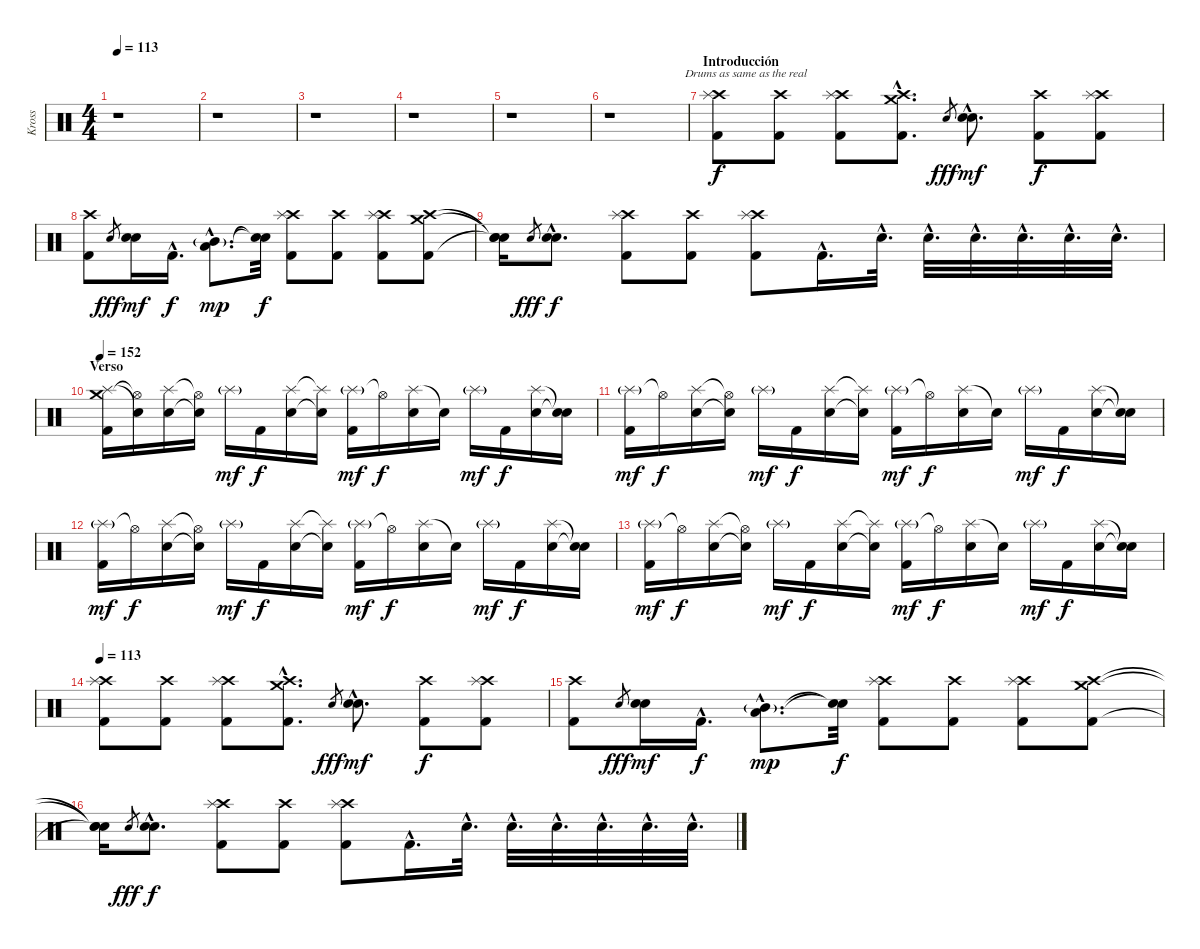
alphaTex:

\track ("Kross" "Kross") {instrument percussion}
\staff {score}
\articulation defaults
\ts (4 4)
\tempo 113
\clef neutral
\ks c
r.1{dy f} |
r.1 |
r.1 |
r.1 |
r.1 |
r.1{txt "                         Drums as same as the real"} |
\section ("" "Introducción")
("Crash high (hit)" "Splash (hit)" "Kick (hit) 2").8 ("Crash high (hit)" "Kick (hit) 2").8 ("Crash high (hit)" "Splash (hit)" "Kick (hit) 2").8 ("Crash high (hit)"{hac} "Crash medium (hit)"{hac} "Kick (hit) 2"{hac}).8{d} "Electric Snare (hit)".8{gr dy fff} ("Electric Snare (hit)"{hac} "Electric Snare (hit)"{hac}).8{d dy mf} ("Crash high (hit)" "Kick (hit) 2").8{dy f} ("Crash high (hit)" "Splash (hit)" "Kick (hit) 2").8 |
("Crash high (hit)" "Kick (hit) 2").8 "Electric Snare (hit)".8{gr dy fff} ("Electric Snare (hit)" "Electric Snare (hit)").16{dy mf} "Kick (hit) 2"{hac}.16{d dy f} ("Low Tom (hit)"{hac} "Mid Tom (hit)"{g hac}).8{d dy mp} ("Snare (hit)"{t} "Snare (hit)"{t}).32{dy f} ("Crash high (hit)" "Splash (hit)" "Kick (hit) 2").8 ("Crash high (hit)" "Kick (hit) 2").8 ("Crash high (hit)" "Splash (hit)" "Kick (hit) 2").8 ("Crash high (hit)" "Crash medium (hit)" "Kick (hit) 2").8 |
("Snare (hit)"{t} "Snare (hit)"{t} "Snare (hit)"{t}).16 "Electric Snare (hit)".8{gr dy fff} ("Electric Snare (hit)"{hac} "Electric Snare (hit)"{hac}).8{d dy f} ("Crash high (hit)" "Splash (hit)" "Kick (hit) 2").8 ("Crash high (hit)" "Kick (hit) 2").8 ("Crash high (hit)" "Splash (hit)" "Kick (hit) 2").8 "Kick (hit) 2"{hac}.16{d} "Electric Snare (hit)"{hac}.32{d} "Electric Snare (hit)"{hac}.32{d} "Electric Snare (hit)"{hac}.32{d} "Electric Snare (hit)"{hac}.32{d} "Electric Snare (hit)"{hac}.32{d} "Electric Snare (hit)"{hac}.32{d} |
\section ("" "Verso ")
\tempo 152
("Crash medium (hit)" "Splash (hit)" "Kick (hit) 2").16 ("Hi-Hat (open)"{t} "Snare (hit)"{t}).16 ("Splash (hit)" "Electric Snare (hit)").16 ("Hi-Hat (open)"{t} "Electric Snare (hit)"{t}).16 "Splash (hit)"{g}.16{dy mf} "Kick (hit) 2".16{dy f} ("Splash (hit)" "Electric Snare (hit)").16 ("Splash (hit)"{t} "Electric Snare (hit)"{t}).16 ("Splash (hit)"{g} "Kick (hit) 2").16{dy mf} "Hi-Hat (open)"{t}.16{dy f} ("Splash (hit)" "Electric Snare (hit)").16 "Snare (hit)"{t}.16 "Splash (hit)"{g}.16{dy mf} "Kick (hit) 2".16{dy f} ("Splash (hit)" "Electric Snare (hit)").16 ("Snare (hit)"{t} "Snare (hit)"{t}).16 |
("Splash (hit)"{g} "Kick (hit) 2").16{dy mf} "Hi-Hat (open)"{t}.16{dy f} ("Splash (hit)" "Electric Snare (hit)").16 ("Hi-Hat (open)"{t} "Electric Snare (hit)"{t}).16 "Splash (hit)"{g}.16{dy mf} "Kick (hit) 2".16{dy f} ("Splash (hit)" "Electric Snare (hit)").16 ("Splash (hit)"{t} "Electric Snare (hit)"{t}).16 ("Splash (hit)"{g} "Kick (hit) 2").16{dy mf} "Hi-Hat (open)"{t}.16{dy f} ("Splash (hit)" "Electric Snare (hit)").16 "Snare (hit)"{t}.16 "Splash (hit)"{g}.16{dy mf} "Kick (hit) 2".16{dy f} ("Splash (hit)" "Electric Snare (hit)").16 ("Snare (hit)"{t} "Snare (hit)"{t}).16 |
("Splash (hit)"{g} "Kick (hit) 2").16{dy mf} "Hi-Hat (open)"{t}.16{dy f} ("Splash (hit)" "Electric Snare (hit)").16 ("Hi-Hat (open)"{t} "Electric Snare (hit)"{t}).16 "Splash (hit)"{g}.16{dy mf} "Kick (hit) 2".16{dy f} ("Splash (hit)" "Electric Snare (hit)").16 ("Splash (hit)"{t} "Electric Snare (hit)"{t}).16 ("Splash (hit)"{g} "Kick (hit) 2").16{dy mf} "Hi-Hat (open)"{t}.16{dy f} ("Splash (hit)" "Electric Snare (hit)").16 "Snare (hit)"{t}.16 "Splash (hit)"{g}.16{dy mf} "Kick (hit) 2".16{dy f} ("Splash (hit)" "Electric Snare (hit)").16 ("Snare (hit)"{t} "Snare (hit)"{t}).16 |
("Splash (hit)"{g} "Kick (hit) 2").16{dy mf} "Hi-Hat (open)"{t}.16{dy f} ("Splash (hit)" "Electric Snare (hit)").16 ("Hi-Hat (open)"{t} "Electric Snare (hit)"{t}).16 "Splash (hit)"{g}.16{dy mf} "Kick (hit) 2".16{dy f} ("Splash (hit)" "Electric Snare (hit)").16 ("Splash (hit)"{t} "Electric Snare (hit)"{t}).16 ("Splash (hit)"{g} "Kick (hit) 2").16{dy mf} "Hi-Hat (open)"{t}.16{dy f} ("Splash (hit)" "Electric Snare (hit)").16 "Snare (hit)"{t}.16 "Splash (hit)"{g}.16{dy mf} "Kick (hit) 2".16{dy f} ("Splash (hit)" "Electric Snare (hit)").16 ("Snare (hit)"{t} "Snare (hit)"{t}).16 |
\tempo 113
("Crash high (hit)" "Splash (hit)" "Kick (hit) 2").8 ("Crash high (hit)" "Kick (hit) 2").8 ("Crash high (hit)" "Splash (hit)" "Kick (hit) 2").8 ("Crash high (hit)"{hac} "Crash medium (hit)"{hac} "Kick (hit) 2"{hac}).8{d} "Electric Snare (hit)".8{gr dy fff} ("Electric Snare (hit)"{hac} "Electric Snare (hit)"{hac}).8{d dy mf} ("Crash high (hit)" "Kick (hit) 2").8{dy f} ("Crash high (hit)" "Splash (hit)" "Kick (hit) 2").8 |
("Crash high (hit)" "Kick (hit) 2").8 "Electric Snare (hit)".8{gr dy fff} ("Electric Snare (hit)" "Electric Snare (hit)").16{dy mf} "Kick (hit) 2"{hac}.16{d dy f} ("Low Tom (hit)"{hac} "Mid Tom (hit)"{g hac}).8{d dy mp} ("Snare (hit)"{t} "Snare (hit)"{t}).32{dy f} ("Crash high (hit)" "Splash (hit)" "Kick (hit) 2").8 ("Crash high (hit)" "Kick (hit) 2").8 ("Crash high (hit)" "Splash (hit)" "Kick (hit) 2").8 ("Crash high (hit)" "Crash medium (hit)" "Kick (hit) 2").8 |
("Snare (hit)"{t} "Snare (hit)"{t} "Snare (hit)"{t}).16 "Electric Snare (hit)".8{gr dy fff} ("Electric Snare (hit)"{hac} "Electric Snare (hit)"{hac}).8{d dy f} ("Crash high (hit)" "Splash (hit)" "Kick (hit) 2").8 ("Crash high (hit)" "Kick (hit) 2").8 ("Crash high (hit)" "Splash (hit)" "Kick (hit) 2").8 "Kick (hit) 2"{hac}.16{d} "Electric Snare (hit)"{hac}.32{d} "Electric Snare (hit)"{hac}.32{d} "Electric Snare (hit)"{hac}.32{d} "Electric Snare (hit)"{hac}.32{d} "Electric Snare (hit)"{hac}.32{d} "Electric Snare (hit)"{hac}.32{d}
